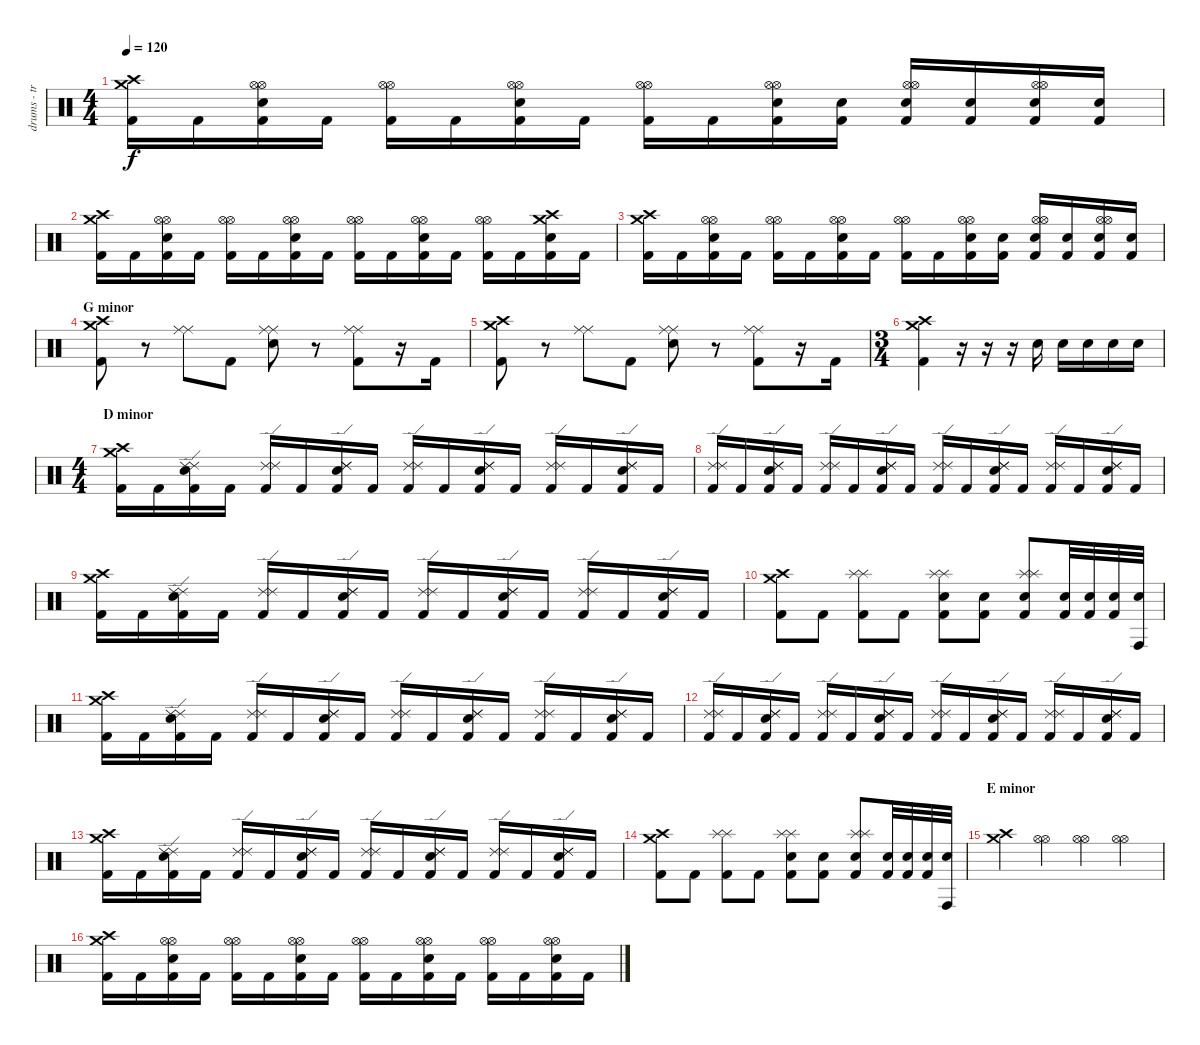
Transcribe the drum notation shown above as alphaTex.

\track ("drums - trash and prog sections" "drums - tr") {instrument percussion}
\staff {score}
\articulation defaults
\ts (4 4)
\tempo 120
\clef neutral
\ks c
("Crash medium (hit)" "Crash high (hit)" "Kick (hit) 2").16{dy f} "Kick (hit) 2".16 ("Hi-Hat (open)" "Hi-Hat (open)" "Snare (hit) 2" "Kick (hit) 2").16 "Kick (hit) 2".16 ("Hi-Hat (open)" "Hi-Hat (open)" "Kick (hit) 2").16 "Kick (hit) 2".16 ("Hi-Hat (open)" "Hi-Hat (open)" "Snare (hit) 2" "Kick (hit) 2").16 "Kick (hit) 2".16 ("Hi-Hat (open)" "Hi-Hat (open)" "Kick (hit) 2").16 "Kick (hit) 2".16 ("Hi-Hat (open)" "Hi-Hat (open)" "Snare (hit) 2" "Kick (hit) 2").16 ("Snare (hit) 2" "Kick (hit) 2").16 ("Hi-Hat (open)" "Hi-Hat (open)" "Snare (hit) 2" "Kick (hit) 2").16 ("Snare (hit) 2" "Kick (hit) 2").16 ("Hi-Hat (open)" "Hi-Hat (open)" "Snare (hit) 2" "Kick (hit) 2").16 ("Snare (hit) 2" "Kick (hit) 2").16 |
("Crash medium (hit)" "Crash high (hit)" "Kick (hit) 2").16 "Kick (hit) 2".16 ("Hi-Hat (open)" "Hi-Hat (open)" "Snare (hit) 2" "Kick (hit) 2").16 "Kick (hit) 2".16 ("Hi-Hat (open)" "Hi-Hat (open)" "Kick (hit) 2").16 "Kick (hit) 2".16 ("Hi-Hat (open)" "Hi-Hat (open)" "Snare (hit) 2" "Kick (hit) 2").16 "Kick (hit) 2".16 ("Hi-Hat (open)" "Hi-Hat (open)" "Kick (hit) 2").16 "Kick (hit) 2".16 ("Hi-Hat (open)" "Hi-Hat (open)" "Snare (hit) 2" "Kick (hit) 2").16 "Kick (hit) 2".16 ("Hi-Hat (open)" "Hi-Hat (open)" "Kick (hit) 2").16 "Kick (hit) 2".16 ("Crash medium (hit)" "Crash high (hit)" "Snare (hit) 2" "Kick (hit) 2").16 "Kick (hit) 2".16 |
("Crash medium (hit)" "Crash high (hit)" "Kick (hit) 2").16 "Kick (hit) 2".16 ("Hi-Hat (open)" "Hi-Hat (open)" "Snare (hit) 2" "Kick (hit) 2").16 "Kick (hit) 2".16 ("Hi-Hat (open)" "Hi-Hat (open)" "Kick (hit) 2").16 "Kick (hit) 2".16 ("Hi-Hat (open)" "Hi-Hat (open)" "Snare (hit) 2" "Kick (hit) 2").16 "Kick (hit) 2".16 ("Hi-Hat (open)" "Hi-Hat (open)" "Kick (hit) 2").16 "Kick (hit) 2".16 ("Hi-Hat (open)" "Hi-Hat (open)" "Snare (hit) 2" "Kick (hit) 2").16 ("Snare (hit) 2" "Kick (hit) 2").16 ("Hi-Hat (open)" "Hi-Hat (open)" "Snare (hit) 2" "Kick (hit) 2").16 ("Snare (hit) 2" "Kick (hit) 2").16 ("Hi-Hat (open)" "Hi-Hat (open)" "Snare (hit) 2" "Kick (hit) 2").16 ("Snare (hit) 2" "Kick (hit) 2").16 |
\section ("" "G minor")
("Crash medium (hit)" "Crash high (hit)" "Kick (hit) 2").8 r.8 ("Ride (middle)" "Ride (middle)").8 "Kick (hit) 2".8 ("Ride (middle)" "Ride (middle)" "Snare (hit) 2").8 r.8 ("Ride (middle)" "Ride (middle)" "Kick (hit) 2").8 r.16 "Kick (hit) 2".16 |
("Crash medium (hit)" "Crash high (hit)" "Kick (hit) 2").8 r.8 ("Ride (middle)" "Ride (middle)").8 "Kick (hit) 2".8 ("Ride (middle)" "Ride (middle)" "Snare (hit) 2").8 r.8 ("Ride (middle)" "Ride (middle)" "Kick (hit) 2").8 r.16 "Kick (hit) 2".16 |
\ts (3 4)
("Crash medium (hit)" "Crash high (hit)" "Kick (hit) 2").4 r.16 r.16 r.16 "Snare (hit) 2".16 "Snare (hit) 2".16 "Snare (hit) 2".16 "Snare (hit) 2".16 "Snare (hit) 2".16 |
\ts (4 4)
\section ("" "D minor")
("Crash medium (hit)" "Crash high (hit)" "Kick (hit) 2").16 "Kick (hit) 2".16 ("Ride (edge) 2" "Ride (edge) 2" "Snare (hit) 2" "Kick (hit) 2").16 "Kick (hit) 2".16 ("Ride (edge) 2" "Ride (edge) 2" "Kick (hit) 2").16 "Kick (hit) 2".16 ("Ride (edge) 2" "Ride (edge) 2" "Snare (hit) 2" "Kick (hit) 2").16 "Kick (hit) 2".16 ("Ride (edge) 2" "Ride (edge) 2" "Kick (hit) 2").16 "Kick (hit) 2".16 ("Ride (edge) 2" "Ride (edge) 2" "Snare (hit) 2" "Kick (hit) 2").16 "Kick (hit) 2".16 ("Ride (edge) 2" "Ride (edge) 2" "Kick (hit) 2").16 "Kick (hit) 2".16 ("Ride (edge) 2" "Ride (edge) 2" "Snare (hit) 2" "Kick (hit) 2").16 "Kick (hit) 2".16 |
("Ride (edge) 2" "Ride (edge) 2" "Kick (hit) 2").16 "Kick (hit) 2".16 ("Ride (edge) 2" "Ride (edge) 2" "Snare (hit) 2" "Kick (hit) 2").16 "Kick (hit) 2".16 ("Ride (edge) 2" "Ride (edge) 2" "Kick (hit) 2").16 "Kick (hit) 2".16 ("Ride (edge) 2" "Ride (edge) 2" "Snare (hit) 2" "Kick (hit) 2").16 "Kick (hit) 2".16 ("Ride (edge) 2" "Ride (edge) 2" "Kick (hit) 2").16 "Kick (hit) 2".16 ("Ride (edge) 2" "Ride (edge) 2" "Snare (hit) 2" "Kick (hit) 2").16 "Kick (hit) 2".16 ("Ride (edge) 2" "Ride (edge) 2" "Kick (hit) 2").16 "Kick (hit) 2".16 ("Ride (edge) 2" "Ride (edge) 2" "Snare (hit) 2" "Kick (hit) 2").16 "Kick (hit) 2".16 |
("Crash medium (hit)" "Crash high (hit)" "Kick (hit) 2").16 "Kick (hit) 2".16 ("Ride (edge) 2" "Ride (edge) 2" "Snare (hit) 2" "Kick (hit) 2").16 "Kick (hit) 2".16 ("Ride (edge) 2" "Ride (edge) 2" "Kick (hit) 2").16 "Kick (hit) 2".16 ("Ride (edge) 2" "Ride (edge) 2" "Snare (hit) 2" "Kick (hit) 2").16 "Kick (hit) 2".16 ("Ride (edge) 2" "Ride (edge) 2" "Kick (hit) 2").16 "Kick (hit) 2".16 ("Ride (edge) 2" "Ride (edge) 2" "Snare (hit) 2" "Kick (hit) 2").16 "Kick (hit) 2".16 ("Ride (edge) 2" "Ride (edge) 2" "Kick (hit) 2").16 "Kick (hit) 2".16 ("Ride (edge) 2" "Ride (edge) 2" "Snare (hit) 2" "Kick (hit) 2").16 "Kick (hit) 2".16 |
("Crash medium (hit)" "Crash high (hit)" "Kick (hit) 2").8 "Kick (hit) 2".8 ("Splash (hit)" "Splash (hit)" "Kick (hit) 2").8 "Kick (hit) 2".8 ("Splash (hit)" "Splash (hit)" "Snare (hit) 2" "Kick (hit) 2").8 ("Snare (hit) 2" "Kick (hit) 2").8 ("Splash (hit)" "Splash (hit)" "Snare (hit) 2" "Kick (hit) 2").8 ("Snare (hit) 2" "Kick (hit) 2").32 ("Snare (hit) 2" "Kick (hit) 2").32 ("Snare (hit) 2" "Kick (hit) 2").32 ("Snare (hit) 2" "Conga high (hit)").32 |
("Crash medium (hit)" "Crash high (hit)" "Kick (hit) 2").16 "Kick (hit) 2".16 ("Ride (edge) 2" "Ride (edge) 2" "Snare (hit) 2" "Kick (hit) 2").16 "Kick (hit) 2".16 ("Ride (edge) 2" "Ride (edge) 2" "Kick (hit) 2").16 "Kick (hit) 2".16 ("Ride (edge) 2" "Ride (edge) 2" "Snare (hit) 2" "Kick (hit) 2").16 "Kick (hit) 2".16 ("Ride (edge) 2" "Ride (edge) 2" "Kick (hit) 2").16 "Kick (hit) 2".16 ("Ride (edge) 2" "Ride (edge) 2" "Snare (hit) 2" "Kick (hit) 2").16 "Kick (hit) 2".16 ("Ride (edge) 2" "Ride (edge) 2" "Kick (hit) 2").16 "Kick (hit) 2".16 ("Ride (edge) 2" "Ride (edge) 2" "Snare (hit) 2" "Kick (hit) 2").16 "Kick (hit) 2".16 |
("Ride (edge) 2" "Ride (edge) 2" "Kick (hit) 2").16 "Kick (hit) 2".16 ("Ride (edge) 2" "Ride (edge) 2" "Snare (hit) 2" "Kick (hit) 2").16 "Kick (hit) 2".16 ("Ride (edge) 2" "Ride (edge) 2" "Kick (hit) 2").16 "Kick (hit) 2".16 ("Ride (edge) 2" "Ride (edge) 2" "Snare (hit) 2" "Kick (hit) 2").16 "Kick (hit) 2".16 ("Ride (edge) 2" "Ride (edge) 2" "Kick (hit) 2").16 "Kick (hit) 2".16 ("Ride (edge) 2" "Ride (edge) 2" "Snare (hit) 2" "Kick (hit) 2").16 "Kick (hit) 2".16 ("Ride (edge) 2" "Ride (edge) 2" "Kick (hit) 2").16 "Kick (hit) 2".16 ("Ride (edge) 2" "Ride (edge) 2" "Snare (hit) 2" "Kick (hit) 2").16 "Kick (hit) 2".16 |
("Crash medium (hit)" "Crash high (hit)" "Kick (hit) 2").16 "Kick (hit) 2".16 ("Ride (edge) 2" "Ride (edge) 2" "Snare (hit) 2" "Kick (hit) 2").16 "Kick (hit) 2".16 ("Ride (edge) 2" "Ride (edge) 2" "Kick (hit) 2").16 "Kick (hit) 2".16 ("Ride (edge) 2" "Ride (edge) 2" "Snare (hit) 2" "Kick (hit) 2").16 "Kick (hit) 2".16 ("Ride (edge) 2" "Ride (edge) 2" "Kick (hit) 2").16 "Kick (hit) 2".16 ("Ride (edge) 2" "Ride (edge) 2" "Snare (hit) 2" "Kick (hit) 2").16 "Kick (hit) 2".16 ("Ride (edge) 2" "Ride (edge) 2" "Kick (hit) 2").16 "Kick (hit) 2".16 ("Ride (edge) 2" "Ride (edge) 2" "Snare (hit) 2" "Kick (hit) 2").16 "Kick (hit) 2".16 |
("Crash medium (hit)" "Crash high (hit)" "Kick (hit) 2").8 "Kick (hit) 2".8 ("Splash (hit)" "Splash (hit)" "Kick (hit) 2").8 "Kick (hit) 2".8 ("Splash (hit)" "Splash (hit)" "Snare (hit) 2" "Kick (hit) 2").8 ("Snare (hit) 2" "Kick (hit) 2").8 ("Splash (hit)" "Splash (hit)" "Snare (hit) 2" "Kick (hit) 2").8 ("Snare (hit) 2" "Kick (hit) 2").32 ("Snare (hit) 2" "Kick (hit) 2").32 ("Snare (hit) 2" "Kick (hit) 2").32 ("Snare (hit) 2" "Conga high (hit)").32 |
\section ("" "E minor")
("Crash medium (hit)" "Crash high (hit)").4 ("Hi-Hat (open)" "Hi-Hat (open)").4 ("Hi-Hat (open)" "Hi-Hat (open)").4 ("Hi-Hat (open)" "Hi-Hat (open)").4 |
("Crash medium (hit)" "Crash high (hit)" "Kick (hit) 2").16 "Kick (hit) 2".16 ("Hi-Hat (open)" "Hi-Hat (open)" "Snare (hit) 2" "Kick (hit) 2").16 "Kick (hit) 2".16 ("Hi-Hat (open)" "Hi-Hat (open)" "Kick (hit) 2").16 "Kick (hit) 2".16 ("Hi-Hat (open)" "Hi-Hat (open)" "Snare (hit) 2" "Kick (hit) 2").16 "Kick (hit) 2".16 ("Hi-Hat (open)" "Hi-Hat (open)" "Kick (hit) 2").16 "Kick (hit) 2".16 ("Hi-Hat (open)" "Hi-Hat (open)" "Snare (hit) 2" "Kick (hit) 2").16 "Kick (hit) 2".16 ("Hi-Hat (open)" "Hi-Hat (open)" "Kick (hit) 2").16 "Kick (hit) 2".16 ("Hi-Hat (open)" "Hi-Hat (open)" "Snare (hit) 2" "Kick (hit) 2").16 "Kick (hit) 2".16
